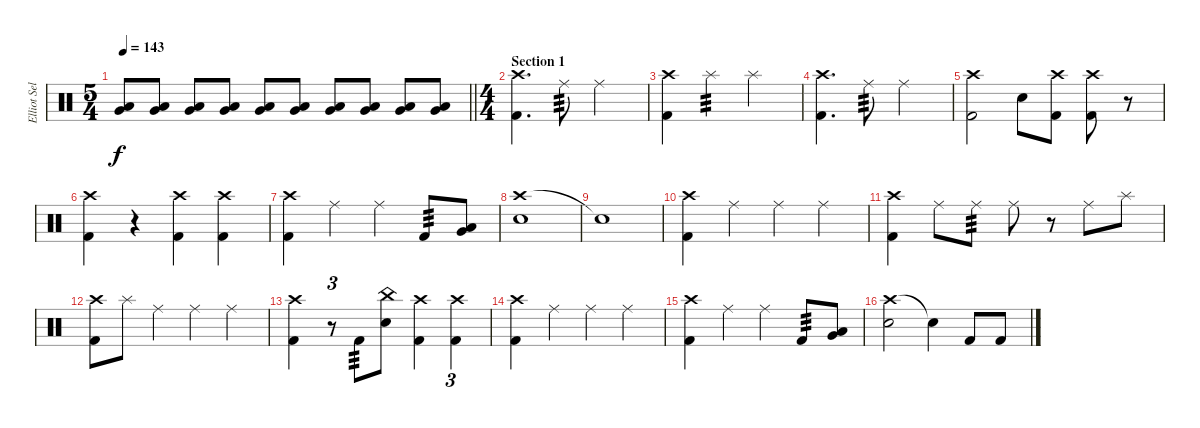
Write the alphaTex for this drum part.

\track ("Elliot Sellers" "Elliot Sel") {instrument percussion}
\staff {score}
\articulation defaults
\ts (5 4)
\tempo 143
\clef neutral
\barLineRight lightlight
\ks c
("Low Tom (hit)" "Very Low Tom (hit)").8{dy f volume 2} ("Low Tom (hit)" "Very Low Tom (hit)").8{volume 13} ("Low Tom (hit)" "Very Low Tom (hit)").8 ("Low Tom (hit)" "Very Low Tom (hit)").8 ("Low Tom (hit)" "Very Low Tom (hit)").8 ("Low Tom (hit)" "Very Low Tom (hit)").8 ("Low Tom (hit)" "Very Low Tom (hit)").8 ("Low Tom (hit)" "Very Low Tom (hit)").8 ("Low Tom (hit)" "Very Low Tom (hit)").8 ("Low Tom (hit)" "Very Low Tom (hit)").8 |
\ts (4 4)
\section ("" "Section 1")
("Crash high (hit)" "Kick (hit) 2").4{d} "Ride (middle)".8{tp 3} "Ride (middle)".2 |
("Crash high (hit)" "Kick (hit) 2").4 "Splash (hit)".4{tp 3} "Splash (hit)".2 |
("Crash high (hit)" "Kick (hit) 2").4{d} "Ride (middle)".8{tp 3} "Ride (middle)".2 |
("Crash high (hit)" "Kick (hit) 2").2 "Electric Snare (hit)".8 ("Crash high (hit)" "Kick (hit) 2").8 ("Crash high (hit)" "Kick (hit) 2").8 r.8 |
("Crash high (hit)" "Kick (hit) 2").4 r.4 ("Crash high (hit)" "Kick (hit) 2").4 ("Crash high (hit)" "Kick (hit) 2").4 |
("Crash high (hit)" "Kick (hit) 2").4 "Ride (middle)".4 "Ride (middle)".4 "Kick (hit) 2".8{tp 3} ("Very Low Tom (hit)" "Low Tom (hit)").8 |
("Crash high (hit)" "Electric Snare (hit)").1 |
"Snare (hit)"{t}.1 |
("Crash high (hit)" "Kick (hit) 2").4 "Ride (middle)".4 "Ride (middle)".4 "Ride (middle)".4 |
("Crash high (hit)" "Kick (hit) 2").4 "Ride (middle)".8 "Ride (middle)".8{tp 3} "Ride (middle)".8 r.8 "Ride (middle)".8 "Splash (hit)".8 |
("Crash high (hit)" "Kick (hit) 2").8 "Splash (hit)".8 "Ride (middle)".4 "Ride (middle)".4 "Ride (middle)".4 |
("Crash high (hit)" "Kick (hit) 2").4 r.8{tu (3 2)} "Kick (hit) 2".8{tp 3} ("China (hit)" "Electric Snare (hit)").8 ("Crash high (hit)" "Kick (hit) 2").4 ("Crash high (hit)" "Kick (hit) 2").4{tu (3 2)} |
("Crash high (hit)" "Kick (hit) 2").4 "Ride (middle)".4 "Ride (middle)".4 "Ride (middle)".4 |
("Crash high (hit)" "Kick (hit) 2").4 "Ride (middle)".4 "Ride (middle)".4 "Kick (hit) 2".8{tp 3} ("Very Low Tom (hit)" "Low Tom (hit)").8 |
("Crash high (hit)" "Electric Snare (hit)").2 "Snare (hit)"{t}.4 "Kick (hit) 2".8 "Kick (hit) 2".8
